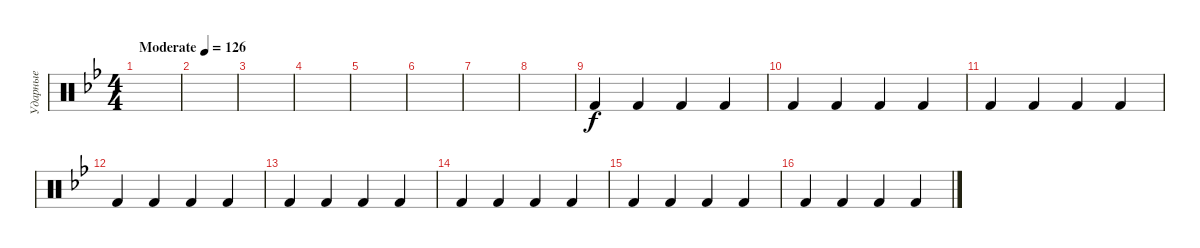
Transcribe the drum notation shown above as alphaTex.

\track ("Ударные" "Ударные") {instrument percussion}
\staff {score}
\articulation defaults
\ts (4 4)
\tempo (126 "Moderate")
\clef neutral
\ks bb
|
|
|
|
|
|
|
|
"Kick (hit) 2".4 "Kick (hit) 2".4 "Kick (hit) 2".4 "Kick (hit) 2".4 |
"Kick (hit) 2".4 "Kick (hit) 2".4 "Kick (hit) 2".4 "Kick (hit) 2".4 |
"Kick (hit) 2".4 "Kick (hit) 2".4 "Kick (hit) 2".4 "Kick (hit) 2".4 |
"Kick (hit) 2".4 "Kick (hit) 2".4 "Kick (hit) 2".4 "Kick (hit) 2".4 |
"Kick (hit) 2".4 "Kick (hit) 2".4 "Kick (hit) 2".4 "Kick (hit) 2".4 |
"Kick (hit) 2".4 "Kick (hit) 2".4 "Kick (hit) 2".4 "Kick (hit) 2".4 |
"Kick (hit) 2".4 "Kick (hit) 2".4 "Kick (hit) 2".4 "Kick (hit) 2".4 |
"Kick (hit) 2".4 "Kick (hit) 2".4 "Kick (hit) 2".4 "Kick (hit) 2".4
